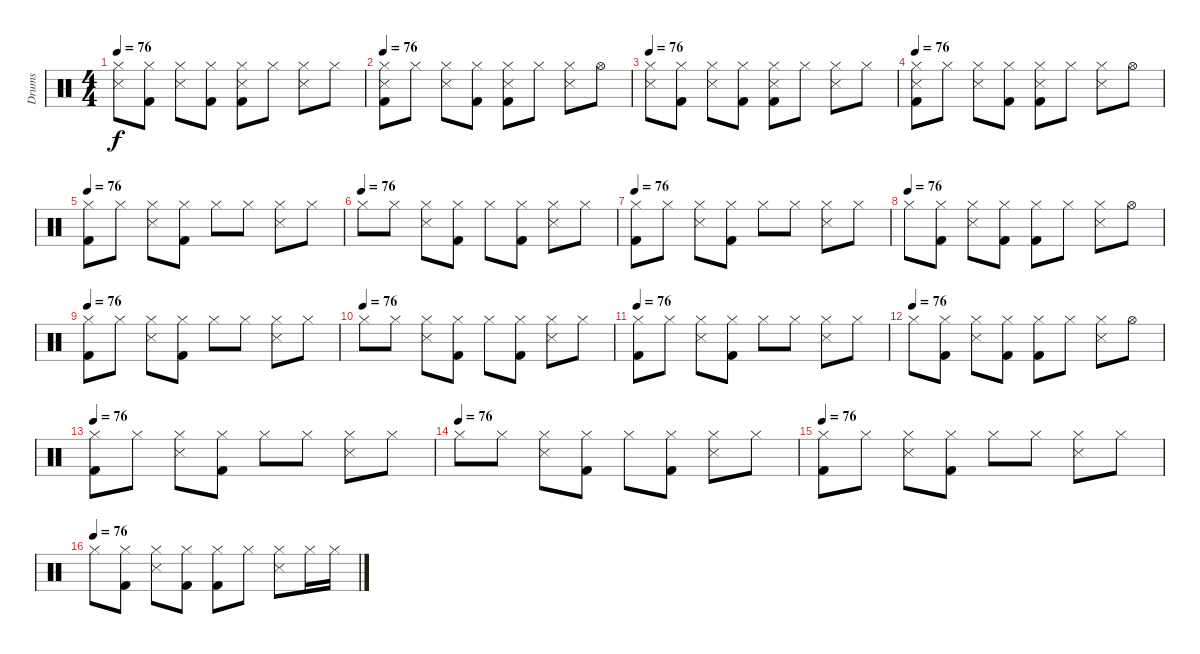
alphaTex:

\track ("Drums" "Drums") {instrument percussion}
\staff {score}
\articulation defaults
\ts (4 4)
\tempo 76
\clef neutral
\ks c
("Hi-Hat (closed)" "Snare (side stick) 3").8{dy f} ("Hi-Hat (closed)" "Kick (hit) 2").8 ("Hi-Hat (closed)" "Snare (side stick) 3").8 ("Hi-Hat (closed)" "Kick (hit) 2").8 ("Hi-Hat (closed)" "Snare (side stick) 3" "Kick (hit) 2").8 "Hi-Hat (closed)".8 ("Hi-Hat (closed)" "Snare (side stick) 3").8 "Hi-Hat (closed)".8 |
\tempo 76
("Hi-Hat (closed)" "Snare (side stick) 3" "Kick (hit) 2").8 "Hi-Hat (closed)".8 ("Hi-Hat (closed)" "Snare (side stick) 3").8 ("Hi-Hat (closed)" "Kick (hit) 2").8 ("Hi-Hat (closed)" "Snare (side stick) 3" "Kick (hit) 2").8 "Hi-Hat (closed)".8 ("Hi-Hat (closed)" "Snare (side stick) 3").8 "Hi-Hat (open)".8 |
\tempo 76
("Hi-Hat (closed)" "Snare (side stick) 3").8 ("Hi-Hat (closed)" "Kick (hit) 2").8 ("Hi-Hat (closed)" "Snare (side stick) 3").8 ("Hi-Hat (closed)" "Kick (hit) 2").8 ("Hi-Hat (closed)" "Snare (side stick) 3" "Kick (hit) 2").8 "Hi-Hat (closed)".8 ("Hi-Hat (closed)" "Snare (side stick) 3").8 "Hi-Hat (closed)".8 |
\tempo 76
("Hi-Hat (closed)" "Snare (side stick) 3" "Kick (hit) 2").8 "Hi-Hat (closed)".8 ("Hi-Hat (closed)" "Snare (side stick) 3").8 ("Hi-Hat (closed)" "Kick (hit) 2").8 ("Hi-Hat (closed)" "Snare (side stick) 3" "Kick (hit) 2").8 "Hi-Hat (closed)".8 ("Hi-Hat (closed)" "Snare (side stick) 3").8 "Hi-Hat (open)".8 |
\tempo 76
("Hi-Hat (closed)" "Kick (hit) 2").8 "Hi-Hat (closed)".8 ("Hi-Hat (closed)" "Snare (side stick) 3").8 ("Hi-Hat (closed)" "Kick (hit) 2").8 "Hi-Hat (closed)".8 "Hi-Hat (closed)".8 ("Hi-Hat (closed)" "Snare (side stick) 3").8 "Hi-Hat (closed)".8 |
\tempo (76)
"Hi-Hat (closed)".8 "Hi-Hat (closed)".8 ("Hi-Hat (closed)" "Snare (side stick) 3").8 ("Hi-Hat (closed)" "Kick (hit) 2").8 "Hi-Hat (closed)".8 ("Hi-Hat (closed)" "Kick (hit) 2").8 ("Hi-Hat (closed)" "Snare (side stick) 3").8 "Hi-Hat (closed)".8 |
\tempo 76
("Hi-Hat (closed)" "Kick (hit) 2").8 "Hi-Hat (closed)".8 ("Hi-Hat (closed)" "Snare (side stick) 3").8 ("Hi-Hat (closed)" "Kick (hit) 2").8 "Hi-Hat (closed)".8 "Hi-Hat (closed)".8 ("Hi-Hat (closed)" "Snare (side stick) 3").8 "Hi-Hat (closed)".8 |
\tempo (76)
"Hi-Hat (closed)".8 ("Hi-Hat (closed)" "Kick (hit) 2").8 ("Hi-Hat (closed)" "Snare (side stick) 3").8 ("Hi-Hat (closed)" "Kick (hit) 2").8 ("Hi-Hat (closed)" "Kick (hit) 2").8 "Hi-Hat (closed)".8 ("Hi-Hat (closed)" "Snare (side stick) 3").8 "Hi-Hat (open)".8 |
\tempo 76
("Hi-Hat (closed)" "Kick (hit) 2").8 "Hi-Hat (closed)".8 ("Hi-Hat (closed)" "Snare (side stick) 3").8 ("Hi-Hat (closed)" "Kick (hit) 2").8 "Hi-Hat (closed)".8 "Hi-Hat (closed)".8 ("Hi-Hat (closed)" "Snare (side stick) 3").8 "Hi-Hat (closed)".8 |
\tempo (76)
"Hi-Hat (closed)".8 "Hi-Hat (closed)".8 ("Hi-Hat (closed)" "Snare (side stick) 3").8 ("Hi-Hat (closed)" "Kick (hit) 2").8 "Hi-Hat (closed)".8 ("Hi-Hat (closed)" "Kick (hit) 2").8 ("Hi-Hat (closed)" "Snare (side stick) 3").8 "Hi-Hat (closed)".8 |
\tempo 76
("Hi-Hat (closed)" "Kick (hit) 2").8 "Hi-Hat (closed)".8 ("Hi-Hat (closed)" "Snare (side stick) 3").8 ("Hi-Hat (closed)" "Kick (hit) 2").8 "Hi-Hat (closed)".8 "Hi-Hat (closed)".8 ("Hi-Hat (closed)" "Snare (side stick) 3").8 "Hi-Hat (closed)".8 |
\tempo (76)
"Hi-Hat (closed)".8 ("Hi-Hat (closed)" "Kick (hit) 2").8 ("Hi-Hat (closed)" "Snare (side stick) 3").8 ("Hi-Hat (closed)" "Kick (hit) 2").8 ("Hi-Hat (closed)" "Kick (hit) 2").8 "Hi-Hat (closed)".8 ("Hi-Hat (closed)" "Snare (side stick) 3").8 "Hi-Hat (open)".8 |
\tempo 76
("Hi-Hat (closed)" "Kick (hit) 2").8 "Hi-Hat (closed)".8 ("Hi-Hat (closed)" "Snare (side stick) 3").8 ("Hi-Hat (closed)" "Kick (hit) 2").8 "Hi-Hat (closed)".8 "Hi-Hat (closed)".8 ("Hi-Hat (closed)" "Snare (side stick) 3").8 "Hi-Hat (closed)".8 |
\tempo (76)
"Hi-Hat (closed)".8 "Hi-Hat (closed)".8 ("Hi-Hat (closed)" "Snare (side stick) 3").8 ("Hi-Hat (closed)" "Kick (hit) 2").8 "Hi-Hat (closed)".8 ("Hi-Hat (closed)" "Kick (hit) 2").8 ("Hi-Hat (closed)" "Snare (side stick) 3").8 "Hi-Hat (closed)".8 |
\tempo 76
("Hi-Hat (closed)" "Kick (hit) 2").8 "Hi-Hat (closed)".8 ("Hi-Hat (closed)" "Snare (side stick) 3").8 ("Hi-Hat (closed)" "Kick (hit) 2").8 "Hi-Hat (closed)".8 "Hi-Hat (closed)".8 ("Hi-Hat (closed)" "Snare (side stick) 3").8 "Hi-Hat (closed)".8 |
\tempo (76)
"Hi-Hat (closed)".8 ("Hi-Hat (closed)" "Kick (hit) 2").8 ("Hi-Hat (closed)" "Snare (side stick) 3").8 ("Hi-Hat (closed)" "Kick (hit) 2").8 ("Hi-Hat (closed)" "Kick (hit) 2").8 "Hi-Hat (closed)".8 ("Hi-Hat (closed)" "Snare (side stick) 3").8 "Hi-Hat (closed)".16 "Hi-Hat (closed)".16
